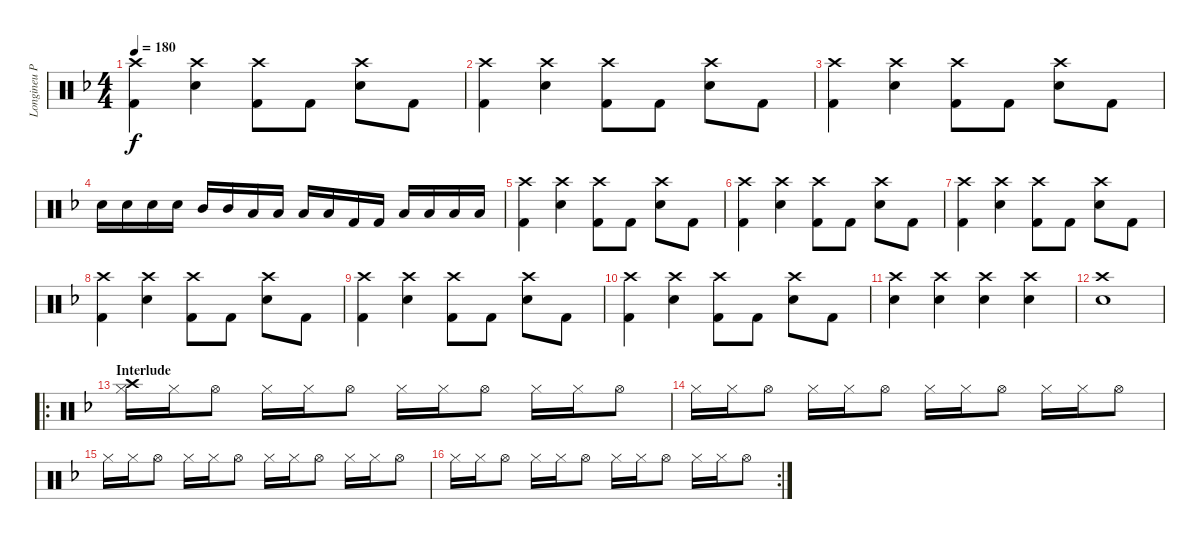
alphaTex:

\track ("Longineu Parsons III (Drums 1)" "Longineu P") {instrument percussion}
\staff {score}
\articulation defaults
\ts (4 4)
\tempo 180
\clef neutral
\ks f
("Kick (hit) 2" "Crash high (hit)").4{dy f} ("Snare (hit) 2" "Crash high (hit)").4 ("Crash high (hit)" "Kick (hit) 2").8 "Kick (hit) 2".8 ("Crash high (hit)" "Snare (hit) 2").8 "Kick (hit) 2".8 |
("Kick (hit) 2" "Crash high (hit)").4 ("Snare (hit) 2" "Crash high (hit)").4 ("Crash high (hit)" "Kick (hit) 2").8 "Kick (hit) 2".8 ("Crash high (hit)" "Snare (hit) 2").8 "Kick (hit) 2".8 |
("Kick (hit) 2" "Crash high (hit)").4 ("Snare (hit) 2" "Crash high (hit)").4 ("Crash high (hit)" "Kick (hit) 2").8 "Kick (hit) 2".8 ("Crash high (hit)" "Snare (hit) 2").8 "Kick (hit) 2".8 |
"Snare (hit) 2".16 "Snare (hit) 2".16 "Snare (hit) 2".16 "Snare (hit) 2".16 "Mid Tom (hit)".16 "Mid Tom (hit)".16 "Low Tom (hit)".16 "Low Tom (hit)".16 "Low Floor Tom (hit)".16 "Low Floor Tom (hit)".16 "Kick (hit) 2".16 "Kick (hit) 2".16 "Low Tom (hit)".16 "Low Tom (hit)".16 "Low Floor Tom (hit)".16 "Low Floor Tom (hit)".16 |
("Kick (hit) 2" "Crash high (hit)").4 ("Snare (hit) 2" "Crash high (hit)").4 ("Crash high (hit)" "Kick (hit) 2").8 "Kick (hit) 2".8 ("Crash high (hit)" "Snare (hit) 2").8 "Kick (hit) 2".8 |
("Kick (hit) 2" "Crash high (hit)").4 ("Snare (hit) 2" "Crash high (hit)").4 ("Crash high (hit)" "Kick (hit) 2").8 "Kick (hit) 2".8 ("Crash high (hit)" "Snare (hit) 2").8 "Kick (hit) 2".8 |
("Kick (hit) 2" "Crash high (hit)").4 ("Snare (hit) 2" "Crash high (hit)").4 ("Crash high (hit)" "Kick (hit) 2").8 "Kick (hit) 2".8 ("Crash high (hit)" "Snare (hit) 2").8 "Kick (hit) 2".8 |
("Kick (hit) 2" "Crash high (hit)").4 ("Snare (hit) 2" "Crash high (hit)").4 ("Crash high (hit)" "Kick (hit) 2").8 "Kick (hit) 2".8 ("Crash high (hit)" "Snare (hit) 2").8 "Kick (hit) 2".8 |
("Kick (hit) 2" "Crash high (hit)").4 ("Snare (hit) 2" "Crash high (hit)").4 ("Crash high (hit)" "Kick (hit) 2").8 "Kick (hit) 2".8 ("Crash high (hit)" "Snare (hit) 2").8 "Kick (hit) 2".8 |
("Kick (hit) 2" "Crash high (hit)").4 ("Snare (hit) 2" "Crash high (hit)").4 ("Crash high (hit)" "Kick (hit) 2").8 "Kick (hit) 2".8 ("Crash high (hit)" "Snare (hit) 2").8 "Kick (hit) 2".8 |
("Crash high (hit)" "Snare (hit) 2").4 ("Crash high (hit)" "Snare (hit) 2").4 ("Crash high (hit)" "Snare (hit) 2").4 ("Crash high (hit)" "Snare (hit) 2").4 |
("Crash high (hit)" "Snare (hit) 2").1 |
\ro
\section ("" "Interlude")
("Crash high (hit)" "Hi-Hat (closed)").16{volume 10} "Hi-Hat (closed)".16 "Hi-Hat (open)".8 "Hi-Hat (closed)".16 "Hi-Hat (closed)".16 "Hi-Hat (open)".8 "Hi-Hat (closed)".16 "Hi-Hat (closed)".16 "Hi-Hat (open)".8 "Hi-Hat (closed)".16 "Hi-Hat (closed)".16 "Hi-Hat (open)".8 |
"Hi-Hat (closed)".16 "Hi-Hat (closed)".16 "Hi-Hat (open)".8 "Hi-Hat (closed)".16 "Hi-Hat (closed)".16 "Hi-Hat (open)".8 "Hi-Hat (closed)".16 "Hi-Hat (closed)".16 "Hi-Hat (open)".8 "Hi-Hat (closed)".16 "Hi-Hat (closed)".16 "Hi-Hat (open)".8 |
"Hi-Hat (closed)".16 "Hi-Hat (closed)".16 "Hi-Hat (open)".8 "Hi-Hat (closed)".16 "Hi-Hat (closed)".16 "Hi-Hat (open)".8 "Hi-Hat (closed)".16 "Hi-Hat (closed)".16 "Hi-Hat (open)".8 "Hi-Hat (closed)".16 "Hi-Hat (closed)".16 "Hi-Hat (open)".8 |
\rc 2 "Hi-Hat (closed)".16 "Hi-Hat (closed)".16 "Hi-Hat (open)".8 "Hi-Hat (closed)".16 "Hi-Hat (closed)".16 "Hi-Hat (open)".8 "Hi-Hat (closed)".16 "Hi-Hat (closed)".16 "Hi-Hat (open)".8 "Hi-Hat (closed)".16 "Hi-Hat (closed)".16 "Hi-Hat (open)".8
